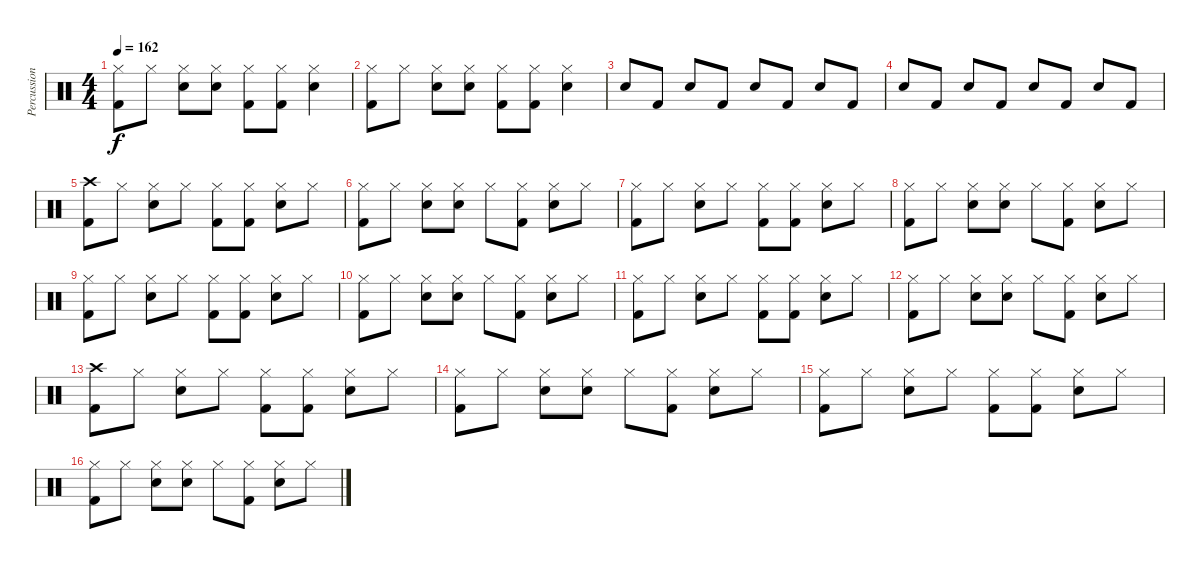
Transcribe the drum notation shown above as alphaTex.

\track ("Percussion" "Percussion") {instrument percussion}
\staff {score}
\articulation defaults
\ts (4 4)
\tempo 162
\clef neutral
\ks c
("Hi-Hat (closed)" "Kick (hit) 2").8{dy f} "Hi-Hat (closed)".8 ("Hi-Hat (closed)" "Electric Snare (hit)").8 ("Hi-Hat (closed)" "Electric Snare (hit)").8 ("Hi-Hat (closed)" "Kick (hit) 2").8 ("Hi-Hat (closed)" "Kick (hit) 2").8 ("Hi-Hat (closed)" "Electric Snare (hit)").4 |
("Hi-Hat (closed)" "Kick (hit) 2").8 "Hi-Hat (closed)".8 ("Hi-Hat (closed)" "Electric Snare (hit)").8 ("Hi-Hat (closed)" "Electric Snare (hit)").8 ("Hi-Hat (closed)" "Kick (hit) 2").8 ("Hi-Hat (closed)" "Kick (hit) 2").8 ("Hi-Hat (closed)" "Electric Snare (hit)").4 |
"Electric Snare (hit)".8 "Kick (hit) 2".8 "Electric Snare (hit)".8 "Kick (hit) 2".8 "Electric Snare (hit)".8 "Kick (hit) 2".8 "Electric Snare (hit)".8 "Kick (hit) 2".8 |
"Electric Snare (hit)".8 "Kick (hit) 2".8 "Electric Snare (hit)".8 "Kick (hit) 2".8 "Electric Snare (hit)".8 "Kick (hit) 2".8 "Electric Snare (hit)".8 "Kick (hit) 2".8 |
("Crash high (hit)" "Kick (hit) 2").8 "Hi-Hat (closed)".8 ("Hi-Hat (closed)" "Electric Snare (hit)").8 "Hi-Hat (closed)".8 ("Hi-Hat (closed)" "Kick (hit) 2").8 ("Hi-Hat (closed)" "Kick (hit) 2").8 ("Hi-Hat (closed)" "Electric Snare (hit)").8 "Hi-Hat (closed)".8 |
("Hi-Hat (closed)" "Kick (hit) 2").8 "Hi-Hat (closed)".8 ("Hi-Hat (closed)" "Electric Snare (hit)").8 ("Hi-Hat (closed)" "Electric Snare (hit)").8 "Hi-Hat (closed)".8 ("Hi-Hat (closed)" "Kick (hit) 2").8 ("Hi-Hat (closed)" "Electric Snare (hit)").8 "Hi-Hat (closed)".8 |
("Hi-Hat (closed)" "Kick (hit) 2").8 "Hi-Hat (closed)".8 ("Hi-Hat (closed)" "Electric Snare (hit)").8 "Hi-Hat (closed)".8 ("Hi-Hat (closed)" "Kick (hit) 2").8 ("Hi-Hat (closed)" "Kick (hit) 2").8 ("Hi-Hat (closed)" "Electric Snare (hit)").8 "Hi-Hat (closed)".8 |
("Hi-Hat (closed)" "Kick (hit) 2").8 "Hi-Hat (closed)".8 ("Hi-Hat (closed)" "Electric Snare (hit)").8 ("Hi-Hat (closed)" "Electric Snare (hit)").8 "Hi-Hat (closed)".8 ("Hi-Hat (closed)" "Kick (hit) 2").8 ("Hi-Hat (closed)" "Electric Snare (hit)").8 "Hi-Hat (closed)".8 |
("Hi-Hat (closed)" "Kick (hit) 2").8 "Hi-Hat (closed)".8 ("Hi-Hat (closed)" "Electric Snare (hit)").8 "Hi-Hat (closed)".8 ("Hi-Hat (closed)" "Kick (hit) 2").8 ("Hi-Hat (closed)" "Kick (hit) 2").8 ("Hi-Hat (closed)" "Electric Snare (hit)").8 "Hi-Hat (closed)".8 |
("Hi-Hat (closed)" "Kick (hit) 2").8 "Hi-Hat (closed)".8 ("Hi-Hat (closed)" "Electric Snare (hit)").8 ("Hi-Hat (closed)" "Electric Snare (hit)").8 "Hi-Hat (closed)".8 ("Hi-Hat (closed)" "Kick (hit) 2").8 ("Hi-Hat (closed)" "Electric Snare (hit)").8 "Hi-Hat (closed)".8 |
("Hi-Hat (closed)" "Kick (hit) 2").8 "Hi-Hat (closed)".8 ("Hi-Hat (closed)" "Electric Snare (hit)").8 "Hi-Hat (closed)".8 ("Hi-Hat (closed)" "Kick (hit) 2").8 ("Hi-Hat (closed)" "Kick (hit) 2").8 ("Hi-Hat (closed)" "Electric Snare (hit)").8 "Hi-Hat (closed)".8 |
("Hi-Hat (closed)" "Kick (hit) 2").8 "Hi-Hat (closed)".8 ("Hi-Hat (closed)" "Electric Snare (hit)").8 ("Hi-Hat (closed)" "Electric Snare (hit)").8 "Hi-Hat (closed)".8 ("Hi-Hat (closed)" "Kick (hit) 2").8 ("Hi-Hat (closed)" "Electric Snare (hit)").8 "Hi-Hat (closed)".8 |
("Crash high (hit)" "Kick (hit) 2").8 "Hi-Hat (closed)".8 ("Hi-Hat (closed)" "Electric Snare (hit)").8 "Hi-Hat (closed)".8 ("Hi-Hat (closed)" "Kick (hit) 2").8 ("Hi-Hat (closed)" "Kick (hit) 2").8 ("Hi-Hat (closed)" "Electric Snare (hit)").8 "Hi-Hat (closed)".8 |
("Hi-Hat (closed)" "Kick (hit) 2").8 "Hi-Hat (closed)".8 ("Hi-Hat (closed)" "Electric Snare (hit)").8 ("Hi-Hat (closed)" "Electric Snare (hit)").8 "Hi-Hat (closed)".8 ("Hi-Hat (closed)" "Kick (hit) 2").8 ("Hi-Hat (closed)" "Electric Snare (hit)").8 "Hi-Hat (closed)".8 |
("Hi-Hat (closed)" "Kick (hit) 2").8 "Hi-Hat (closed)".8 ("Hi-Hat (closed)" "Electric Snare (hit)").8 "Hi-Hat (closed)".8 ("Hi-Hat (closed)" "Kick (hit) 2").8 ("Hi-Hat (closed)" "Kick (hit) 2").8 ("Hi-Hat (closed)" "Electric Snare (hit)").8 "Hi-Hat (closed)".8 |
("Hi-Hat (closed)" "Kick (hit) 2").8 "Hi-Hat (closed)".8 ("Hi-Hat (closed)" "Electric Snare (hit)").8 ("Hi-Hat (closed)" "Electric Snare (hit)").8 "Hi-Hat (closed)".8 ("Hi-Hat (closed)" "Kick (hit) 2").8 ("Hi-Hat (closed)" "Electric Snare (hit)").8 "Hi-Hat (closed)".8
